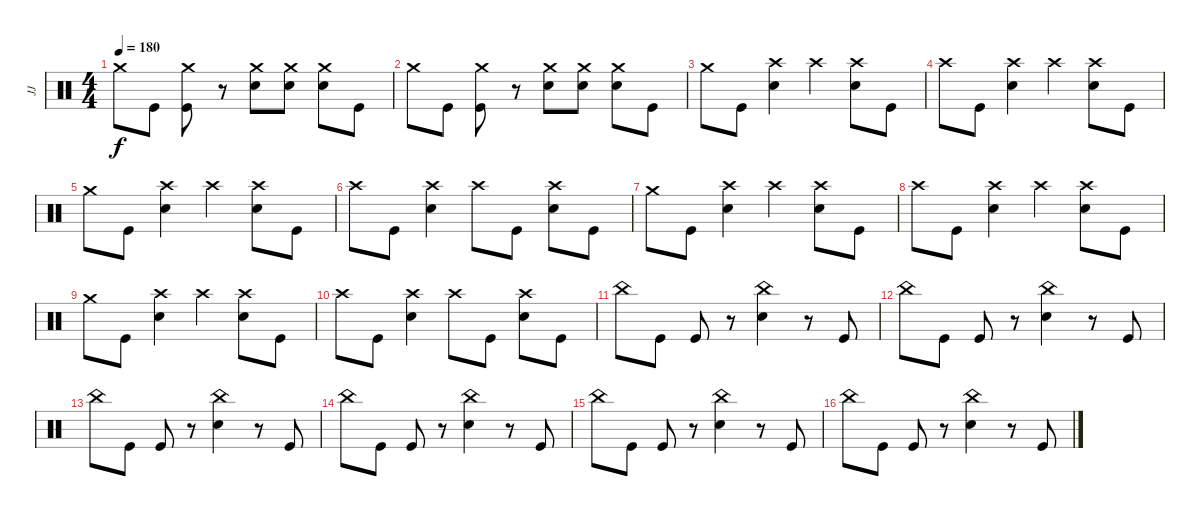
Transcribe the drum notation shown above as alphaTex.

\track ("JJ" "JJ") {mute instrument percussion}
\staff {score}
\articulation defaults
\ts (4 4)
\tempo 180
\clef neutral
\ks c "Crash medium (hit)".8{dy f} "Kick (hit)".8
("Crash medium (hit)" "Kick (hit)").8 r.8 ("Crash medium (hit)" "Snare (hit) 2").8 ("Crash medium (hit)" "Snare (hit) 2").8 ("Crash medium (hit)" "Snare (hit) 2").8 "Kick (hit)".8 |
"Crash medium (hit)".8 "Kick (hit)".8 ("Crash medium (hit)" "Kick (hit)").8 r.8 ("Crash medium (hit)" "Snare (hit) 2").8 ("Crash medium (hit)" "Snare (hit) 2").8 ("Crash medium (hit)" "Snare (hit) 2").8 "Kick (hit)".8 |
"Crash medium (hit)".8 "Kick (hit)".8 ("Crash high (hit)" "Snare (hit) 2").4 "Crash high (hit)".4 ("Crash high (hit)" "Snare (hit) 2").8 "Kick (hit)".8 |
"Crash high (hit)".8 "Kick (hit)".8 ("Crash high (hit)" "Snare (hit) 2").4 "Crash high (hit)".4 ("Crash high (hit)" "Snare (hit) 2").8 "Kick (hit)".8 |
"Crash medium (hit)".8 "Kick (hit)".8 ("Crash high (hit)" "Snare (hit) 2").4 "Crash high (hit)".4 ("Crash high (hit)" "Snare (hit) 2").8 "Kick (hit)".8 |
"Crash high (hit)".8 "Kick (hit)".8 ("Crash high (hit)" "Snare (hit) 2").4 "Crash high (hit)".8 "Kick (hit)".8 ("Crash high (hit)" "Snare (hit) 2").8 "Kick (hit)".8 |
"Crash medium (hit)".8 "Kick (hit)".8 ("Crash high (hit)" "Snare (hit) 2").4 "Crash high (hit)".4 ("Crash high (hit)" "Snare (hit) 2").8 "Kick (hit)".8 |
"Crash high (hit)".8 "Kick (hit)".8 ("Crash high (hit)" "Snare (hit) 2").4 "Crash high (hit)".4 ("Crash high (hit)" "Snare (hit) 2").8 "Kick (hit)".8 |
"Crash medium (hit)".8 "Kick (hit)".8 ("Crash high (hit)" "Snare (hit) 2").4 "Crash high (hit)".4 ("Crash high (hit)" "Snare (hit) 2").8 "Kick (hit)".8 |
"Crash high (hit)".8 "Kick (hit)".8 ("Crash high (hit)" "Snare (hit) 2").4 "Crash high (hit)".8 "Kick (hit)".8 ("Crash high (hit)" "Snare (hit) 2").8 "Kick (hit)".8 |
"China (hit)".8 "Kick (hit)".8 "Kick (hit)".8 r.8 ("China (hit)" "Snare (hit) 2").4 r.8 "Kick (hit)".8 |
"China (hit)".8 "Kick (hit)".8 "Kick (hit)".8 r.8 ("China (hit)" "Snare (hit) 2").4 r.8 "Kick (hit)".8 |
"China (hit)".8 "Kick (hit)".8 "Kick (hit)".8 r.8 ("China (hit)" "Snare (hit) 2").4 r.8 "Kick (hit)".8 |
"China (hit)".8 "Kick (hit)".8 "Kick (hit)".8 r.8 ("China (hit)" "Snare (hit) 2").4 r.8 "Kick (hit)".8 |
"China (hit)".8 "Kick (hit)".8 "Kick (hit)".8 r.8 ("China (hit)" "Snare (hit) 2").4 r.8 "Kick (hit)".8 |
"China (hit)".8 "Kick (hit)".8 "Kick (hit)".8 r.8 ("China (hit)" "Snare (hit) 2").4 r.8 "Kick (hit)".8
